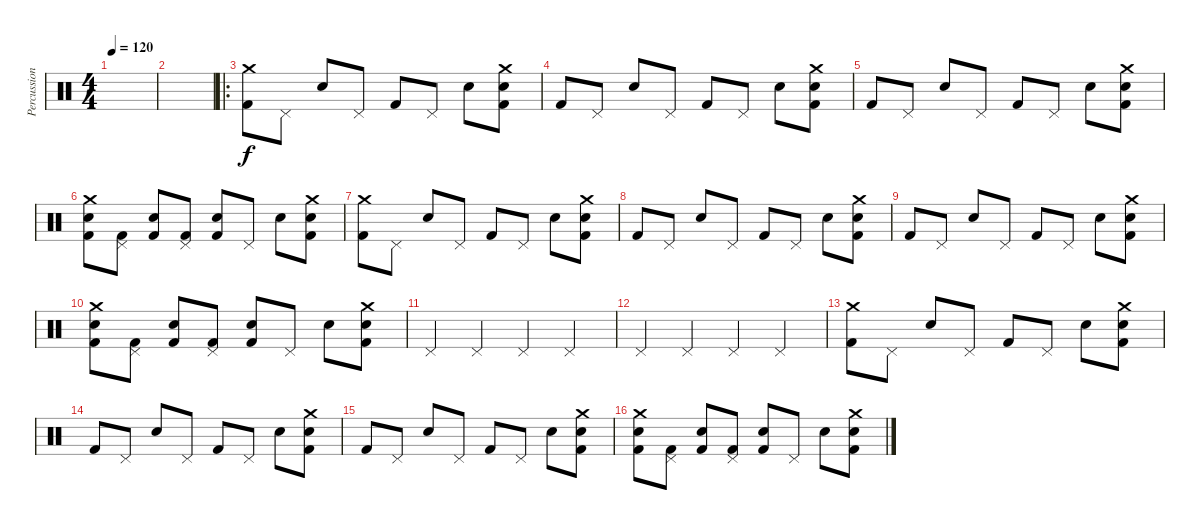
\track ("Percussions" "Percussion") {instrument percussion}
\staff {score}
\articulation defaults
\ts (4 4)
\tempo 120
\clef neutral
\ks c
|
|
\ro
("Crash medium (hit)" "Kick (hit) 2").8 "Pedal Hi-Hat (hit)".8 "Electric Snare (hit)".8 "Pedal Hi-Hat (hit)".8 "Kick (hit) 2".8 "Pedal Hi-Hat (hit)".8 "Electric Snare (hit)".8 ("Crash medium (hit)" "Electric Snare (hit)" "Kick (hit) 2").8 |
"Kick (hit) 2".8 "Pedal Hi-Hat (hit)".8 "Electric Snare (hit)".8 "Pedal Hi-Hat (hit)".8 "Kick (hit) 2".8 "Pedal Hi-Hat (hit)".8 "Electric Snare (hit)".8 ("Crash medium (hit)" "Electric Snare (hit)" "Kick (hit) 2").8 |
"Kick (hit) 2".8 "Pedal Hi-Hat (hit)".8 "Electric Snare (hit)".8 "Pedal Hi-Hat (hit)".8 "Kick (hit) 2".8 "Pedal Hi-Hat (hit)".8 "Electric Snare (hit)".8 ("Crash medium (hit)" "Electric Snare (hit)" "Kick (hit) 2").8 |
("Crash medium (hit)" "Electric Snare (hit)" "Kick (hit) 2").8 ("Pedal Hi-Hat (hit)" "Kick (hit) 2").8 ("Electric Snare (hit)" "Kick (hit) 2").8 ("Pedal Hi-Hat (hit)" "Kick (hit) 2").8 ("Electric Snare (hit)" "Kick (hit) 2").8 "Pedal Hi-Hat (hit)".8 "Electric Snare (hit)".8 ("Crash medium (hit)" "Electric Snare (hit)" "Kick (hit) 2").8 |
("Crash medium (hit)" "Kick (hit) 2").8 "Pedal Hi-Hat (hit)".8 "Electric Snare (hit)".8 "Pedal Hi-Hat (hit)".8 "Kick (hit) 2".8 "Pedal Hi-Hat (hit)".8 "Electric Snare (hit)".8 ("Crash medium (hit)" "Electric Snare (hit)" "Kick (hit) 2").8 |
"Kick (hit) 2".8 "Pedal Hi-Hat (hit)".8 "Electric Snare (hit)".8 "Pedal Hi-Hat (hit)".8 "Kick (hit) 2".8 "Pedal Hi-Hat (hit)".8 "Electric Snare (hit)".8 ("Crash medium (hit)" "Electric Snare (hit)" "Kick (hit) 2").8 |
"Kick (hit) 2".8 "Pedal Hi-Hat (hit)".8 "Electric Snare (hit)".8 "Pedal Hi-Hat (hit)".8 "Kick (hit) 2".8 "Pedal Hi-Hat (hit)".8 "Electric Snare (hit)".8 ("Crash medium (hit)" "Electric Snare (hit)" "Kick (hit) 2").8 |
("Crash medium (hit)" "Electric Snare (hit)" "Kick (hit) 2").8 ("Pedal Hi-Hat (hit)" "Kick (hit) 2").8 ("Electric Snare (hit)" "Kick (hit) 2").8 ("Pedal Hi-Hat (hit)" "Kick (hit) 2").8 ("Electric Snare (hit)" "Kick (hit) 2").8 "Pedal Hi-Hat (hit)".8 "Electric Snare (hit)".8 ("Crash medium (hit)" "Electric Snare (hit)" "Kick (hit) 2").8 |
"Pedal Hi-Hat (hit)".4 "Pedal Hi-Hat (hit)".4 "Pedal Hi-Hat (hit)".4 "Pedal Hi-Hat (hit)".4 |
"Pedal Hi-Hat (hit)".4 "Pedal Hi-Hat (hit)".4 "Pedal Hi-Hat (hit)".4 "Pedal Hi-Hat (hit)".4 |
("Crash medium (hit)" "Kick (hit) 2").8 "Pedal Hi-Hat (hit)".8 "Electric Snare (hit)".8 "Pedal Hi-Hat (hit)".8 "Kick (hit) 2".8 "Pedal Hi-Hat (hit)".8 "Electric Snare (hit)".8 ("Crash medium (hit)" "Electric Snare (hit)" "Kick (hit) 2").8 |
"Kick (hit) 2".8 "Pedal Hi-Hat (hit)".8 "Electric Snare (hit)".8 "Pedal Hi-Hat (hit)".8 "Kick (hit) 2".8 "Pedal Hi-Hat (hit)".8 "Electric Snare (hit)".8 ("Crash medium (hit)" "Electric Snare (hit)" "Kick (hit) 2").8 |
"Kick (hit) 2".8 "Pedal Hi-Hat (hit)".8 "Electric Snare (hit)".8 "Pedal Hi-Hat (hit)".8 "Kick (hit) 2".8 "Pedal Hi-Hat (hit)".8 "Electric Snare (hit)".8 ("Crash medium (hit)" "Electric Snare (hit)" "Kick (hit) 2").8 |
("Crash medium (hit)" "Electric Snare (hit)" "Kick (hit) 2").8 ("Pedal Hi-Hat (hit)" "Kick (hit) 2").8 ("Electric Snare (hit)" "Kick (hit) 2").8 ("Pedal Hi-Hat (hit)" "Kick (hit) 2").8 ("Electric Snare (hit)" "Kick (hit) 2").8 "Pedal Hi-Hat (hit)".8 "Electric Snare (hit)".8 ("Crash medium (hit)" "Electric Snare (hit)" "Kick (hit) 2").8
